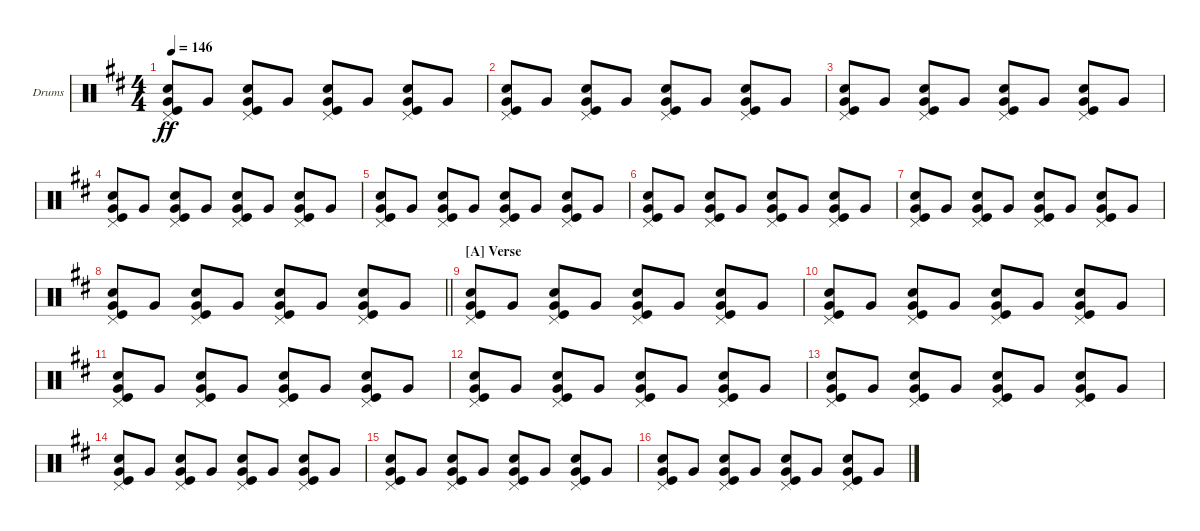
\bracketExtendMode groupsimilarinstruments
\firstSystemTrackNameOrientation horizontal
\otherSystemsTrackNameOrientation horizontal
\track ("Fabrizio Moretti" "Drums") {instrument percussion}
\staff {score}
\articulation defaults
\ts (4 4)
\tempo 146
\clef neutral
\ks d
("Very Low Tom (hit)" "Pedal Hi-Hat (hit)" "Snare (hit) 2" "Kick (hit)").8{dy ff} "Very Low Tom (hit)".8 ("Very Low Tom (hit)" "Pedal Hi-Hat (hit)" "Snare (hit) 2" "Kick (hit)").8 "Very Low Tom (hit)".8 ("Very Low Tom (hit)" "Pedal Hi-Hat (hit)" "Snare (hit) 2" "Kick (hit)").8 "Very Low Tom (hit)".8 ("Very Low Tom (hit)" "Pedal Hi-Hat (hit)" "Snare (hit) 2" "Kick (hit)").8 "Very Low Tom (hit)".8 |
("Very Low Tom (hit)" "Pedal Hi-Hat (hit)" "Snare (hit) 2" "Kick (hit)").8 "Very Low Tom (hit)".8 ("Very Low Tom (hit)" "Pedal Hi-Hat (hit)" "Snare (hit) 2" "Kick (hit)").8 "Very Low Tom (hit)".8 ("Very Low Tom (hit)" "Pedal Hi-Hat (hit)" "Snare (hit) 2" "Kick (hit)").8 "Very Low Tom (hit)".8 ("Very Low Tom (hit)" "Pedal Hi-Hat (hit)" "Snare (hit) 2" "Kick (hit)").8 "Very Low Tom (hit)".8 |
("Very Low Tom (hit)" "Pedal Hi-Hat (hit)" "Snare (hit) 2" "Kick (hit)").8 "Very Low Tom (hit)".8 ("Very Low Tom (hit)" "Pedal Hi-Hat (hit)" "Snare (hit) 2" "Kick (hit)").8 "Very Low Tom (hit)".8 ("Very Low Tom (hit)" "Pedal Hi-Hat (hit)" "Snare (hit) 2" "Kick (hit)").8 "Very Low Tom (hit)".8 ("Very Low Tom (hit)" "Pedal Hi-Hat (hit)" "Snare (hit) 2" "Kick (hit)").8 "Very Low Tom (hit)".8 |
("Very Low Tom (hit)" "Pedal Hi-Hat (hit)" "Snare (hit) 2" "Kick (hit)").8 "Very Low Tom (hit)".8 ("Very Low Tom (hit)" "Pedal Hi-Hat (hit)" "Snare (hit) 2" "Kick (hit)").8 "Very Low Tom (hit)".8 ("Very Low Tom (hit)" "Pedal Hi-Hat (hit)" "Snare (hit) 2" "Kick (hit)").8 "Very Low Tom (hit)".8 ("Very Low Tom (hit)" "Pedal Hi-Hat (hit)" "Snare (hit) 2" "Kick (hit)").8 "Very Low Tom (hit)".8 |
("Very Low Tom (hit)" "Pedal Hi-Hat (hit)" "Snare (hit) 2" "Kick (hit)").8 "Very Low Tom (hit)".8 ("Very Low Tom (hit)" "Pedal Hi-Hat (hit)" "Snare (hit) 2" "Kick (hit)").8 "Very Low Tom (hit)".8 ("Very Low Tom (hit)" "Pedal Hi-Hat (hit)" "Snare (hit) 2" "Kick (hit)").8 "Very Low Tom (hit)".8 ("Very Low Tom (hit)" "Pedal Hi-Hat (hit)" "Snare (hit) 2" "Kick (hit)").8 "Very Low Tom (hit)".8 |
("Very Low Tom (hit)" "Pedal Hi-Hat (hit)" "Snare (hit) 2" "Kick (hit)").8 "Very Low Tom (hit)".8 ("Very Low Tom (hit)" "Pedal Hi-Hat (hit)" "Snare (hit) 2" "Kick (hit)").8 "Very Low Tom (hit)".8 ("Very Low Tom (hit)" "Pedal Hi-Hat (hit)" "Snare (hit) 2" "Kick (hit)").8 "Very Low Tom (hit)".8 ("Very Low Tom (hit)" "Pedal Hi-Hat (hit)" "Snare (hit) 2" "Kick (hit)").8 "Very Low Tom (hit)".8 |
("Very Low Tom (hit)" "Pedal Hi-Hat (hit)" "Snare (hit) 2" "Kick (hit)").8 "Very Low Tom (hit)".8 ("Very Low Tom (hit)" "Pedal Hi-Hat (hit)" "Snare (hit) 2" "Kick (hit)").8 "Very Low Tom (hit)".8 ("Very Low Tom (hit)" "Pedal Hi-Hat (hit)" "Snare (hit) 2" "Kick (hit)").8 "Very Low Tom (hit)".8 ("Very Low Tom (hit)" "Pedal Hi-Hat (hit)" "Snare (hit) 2" "Kick (hit)").8 "Very Low Tom (hit)".8 |
\barLineRight lightlight
("Very Low Tom (hit)" "Pedal Hi-Hat (hit)" "Snare (hit) 2" "Kick (hit)").8 "Very Low Tom (hit)".8 ("Very Low Tom (hit)" "Pedal Hi-Hat (hit)" "Snare (hit) 2" "Kick (hit)").8 "Very Low Tom (hit)".8 ("Very Low Tom (hit)" "Pedal Hi-Hat (hit)" "Snare (hit) 2" "Kick (hit)").8 "Very Low Tom (hit)".8 ("Very Low Tom (hit)" "Pedal Hi-Hat (hit)" "Snare (hit) 2" "Kick (hit)").8 "Very Low Tom (hit)".8 |
\section ("A" "Verse")
("Very Low Tom (hit)" "Pedal Hi-Hat (hit)" "Snare (hit) 2" "Kick (hit)").8 "Very Low Tom (hit)".8 ("Very Low Tom (hit)" "Pedal Hi-Hat (hit)" "Snare (hit) 2" "Kick (hit)").8 "Very Low Tom (hit)".8 ("Very Low Tom (hit)" "Pedal Hi-Hat (hit)" "Snare (hit) 2" "Kick (hit)").8 "Very Low Tom (hit)".8 ("Very Low Tom (hit)" "Pedal Hi-Hat (hit)" "Snare (hit) 2" "Kick (hit)").8 "Very Low Tom (hit)".8 |
("Very Low Tom (hit)" "Pedal Hi-Hat (hit)" "Snare (hit) 2" "Kick (hit)").8 "Very Low Tom (hit)".8 ("Very Low Tom (hit)" "Pedal Hi-Hat (hit)" "Snare (hit) 2" "Kick (hit)").8 "Very Low Tom (hit)".8 ("Very Low Tom (hit)" "Pedal Hi-Hat (hit)" "Snare (hit) 2" "Kick (hit)").8 "Very Low Tom (hit)".8 ("Very Low Tom (hit)" "Pedal Hi-Hat (hit)" "Snare (hit) 2" "Kick (hit)").8 "Very Low Tom (hit)".8 |
("Very Low Tom (hit)" "Pedal Hi-Hat (hit)" "Snare (hit) 2" "Kick (hit)").8 "Very Low Tom (hit)".8 ("Very Low Tom (hit)" "Pedal Hi-Hat (hit)" "Snare (hit) 2" "Kick (hit)").8 "Very Low Tom (hit)".8 ("Very Low Tom (hit)" "Pedal Hi-Hat (hit)" "Snare (hit) 2" "Kick (hit)").8 "Very Low Tom (hit)".8 ("Very Low Tom (hit)" "Pedal Hi-Hat (hit)" "Snare (hit) 2" "Kick (hit)").8 "Very Low Tom (hit)".8 |
("Very Low Tom (hit)" "Pedal Hi-Hat (hit)" "Snare (hit) 2" "Kick (hit)").8 "Very Low Tom (hit)".8 ("Very Low Tom (hit)" "Pedal Hi-Hat (hit)" "Snare (hit) 2" "Kick (hit)").8 "Very Low Tom (hit)".8 ("Very Low Tom (hit)" "Pedal Hi-Hat (hit)" "Snare (hit) 2" "Kick (hit)").8 "Very Low Tom (hit)".8 ("Very Low Tom (hit)" "Pedal Hi-Hat (hit)" "Snare (hit) 2" "Kick (hit)").8 "Very Low Tom (hit)".8 |
("Very Low Tom (hit)" "Pedal Hi-Hat (hit)" "Snare (hit) 2" "Kick (hit)").8 "Very Low Tom (hit)".8 ("Very Low Tom (hit)" "Pedal Hi-Hat (hit)" "Snare (hit) 2" "Kick (hit)").8 "Very Low Tom (hit)".8 ("Very Low Tom (hit)" "Pedal Hi-Hat (hit)" "Snare (hit) 2" "Kick (hit)").8 "Very Low Tom (hit)".8 ("Very Low Tom (hit)" "Pedal Hi-Hat (hit)" "Snare (hit) 2" "Kick (hit)").8 "Very Low Tom (hit)".8 |
("Very Low Tom (hit)" "Pedal Hi-Hat (hit)" "Snare (hit) 2" "Kick (hit)").8 "Very Low Tom (hit)".8 ("Very Low Tom (hit)" "Pedal Hi-Hat (hit)" "Snare (hit) 2" "Kick (hit)").8 "Very Low Tom (hit)".8 ("Very Low Tom (hit)" "Pedal Hi-Hat (hit)" "Snare (hit) 2" "Kick (hit)").8 "Very Low Tom (hit)".8 ("Very Low Tom (hit)" "Pedal Hi-Hat (hit)" "Snare (hit) 2" "Kick (hit)").8 "Very Low Tom (hit)".8 |
("Very Low Tom (hit)" "Pedal Hi-Hat (hit)" "Snare (hit) 2" "Kick (hit)").8 "Very Low Tom (hit)".8 ("Very Low Tom (hit)" "Pedal Hi-Hat (hit)" "Snare (hit) 2" "Kick (hit)").8 "Very Low Tom (hit)".8 ("Very Low Tom (hit)" "Pedal Hi-Hat (hit)" "Snare (hit) 2" "Kick (hit)").8 "Very Low Tom (hit)".8 ("Very Low Tom (hit)" "Pedal Hi-Hat (hit)" "Snare (hit) 2" "Kick (hit)").8 "Very Low Tom (hit)".8 |
("Very Low Tom (hit)" "Pedal Hi-Hat (hit)" "Snare (hit) 2" "Kick (hit)").8 "Very Low Tom (hit)".8 ("Very Low Tom (hit)" "Pedal Hi-Hat (hit)" "Snare (hit) 2" "Kick (hit)").8 "Very Low Tom (hit)".8 ("Very Low Tom (hit)" "Pedal Hi-Hat (hit)" "Snare (hit) 2" "Kick (hit)").8 "Very Low Tom (hit)".8 ("Very Low Tom (hit)" "Pedal Hi-Hat (hit)" "Snare (hit) 2" "Kick (hit)").8 "Very Low Tom (hit)".8
